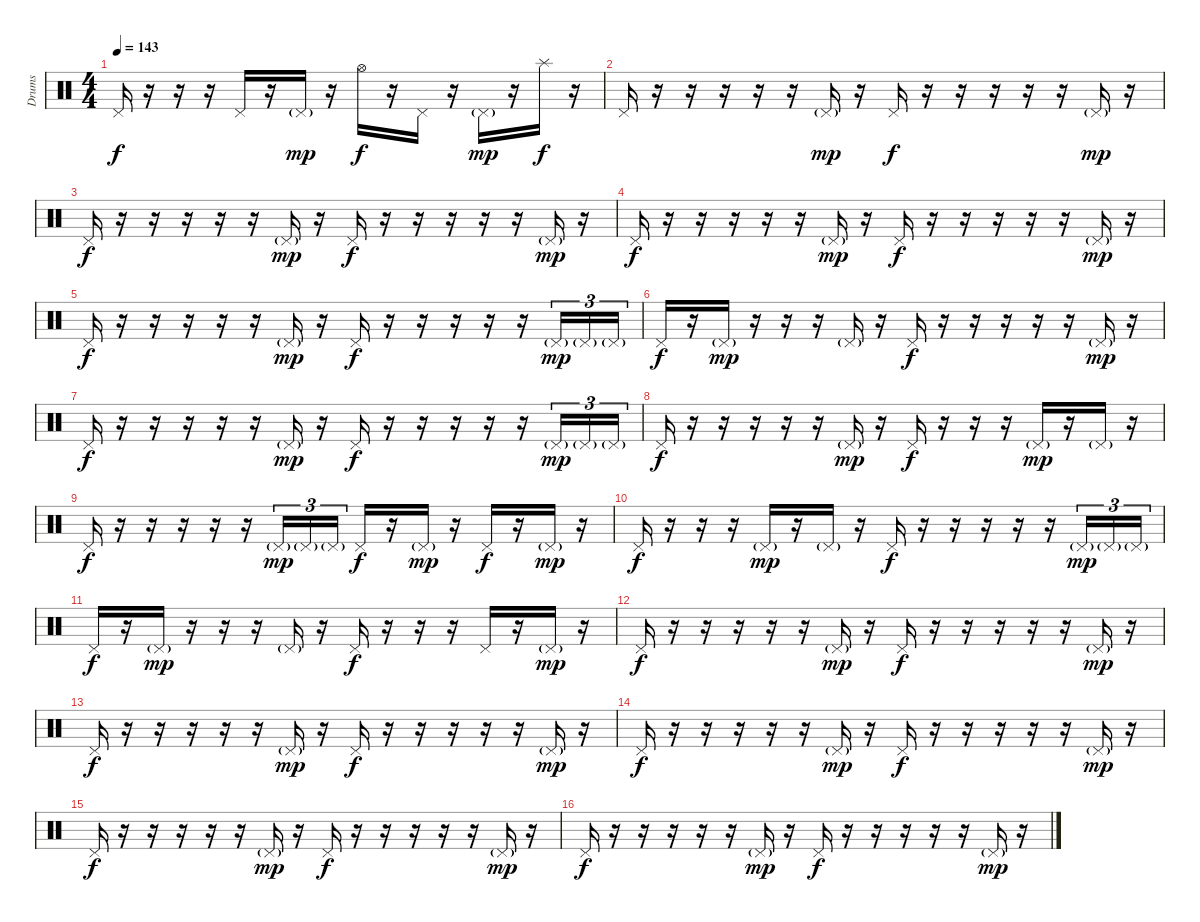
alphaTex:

\track ("Drums" "Drums") {instrument percussion}
\staff {score}
\articulation defaults
\ts (4 4)
\tempo 143
\clef neutral
\ks c "Pedal Hi-Hat (hit)".16{dy f}
r.16 r.16 r.16 "Pedal Hi-Hat (hit)".16 r.16 "Pedal Hi-Hat (hit)"{g}.16{dy mp} r.16 "Hi-Hat (open)".16{dy f} r.16 "Pedal Hi-Hat (hit)".16 r.16 "Pedal Hi-Hat (hit)"{g}.16{dy mp} r.16 "Splash (hit)".16{dy f} r.16 |
"Pedal Hi-Hat (hit)".16 r.16 r.16 r.16 r.16 r.16 "Pedal Hi-Hat (hit)"{g}.16{dy mp} r.16 "Pedal Hi-Hat (hit)".16{dy f} r.16 r.16 r.16 r.16 r.16 "Pedal Hi-Hat (hit)"{g}.16{dy mp} r.16 |
"Pedal Hi-Hat (hit)".16{dy f} r.16 r.16 r.16 r.16 r.16 "Pedal Hi-Hat (hit)"{g}.16{dy mp} r.16 "Pedal Hi-Hat (hit)".16{dy f} r.16 r.16 r.16 r.16 r.16 "Pedal Hi-Hat (hit)"{g}.16{dy mp} r.16 |
"Pedal Hi-Hat (hit)".16{dy f} r.16 r.16 r.16 r.16 r.16 "Pedal Hi-Hat (hit)"{g}.16{dy mp} r.16 "Pedal Hi-Hat (hit)".16{dy f} r.16 r.16 r.16 r.16 r.16 "Pedal Hi-Hat (hit)"{g}.16{dy mp} r.16 |
"Pedal Hi-Hat (hit)".16{dy f} r.16 r.16 r.16 r.16 r.16 "Pedal Hi-Hat (hit)"{g}.16{dy mp} r.16 "Pedal Hi-Hat (hit)".16{dy f} r.16 r.16 r.16 r.16 r.16 "Pedal Hi-Hat (hit)"{g}.16{tu (3 2) dy mp} "Pedal Hi-Hat (hit)"{g}.16{tu (3 2)} "Pedal Hi-Hat (hit)"{g}.16{tu (3 2)} |
"Pedal Hi-Hat (hit)".16{dy f} r.16 "Pedal Hi-Hat (hit)"{g}.16{dy mp} r.16 r.16 r.16 "Pedal Hi-Hat (hit)"{g}.16 r.16 "Pedal Hi-Hat (hit)".16{dy f} r.16 r.16 r.16 r.16 r.16 "Pedal Hi-Hat (hit)"{g}.16{dy mp} r.16 |
"Pedal Hi-Hat (hit)".16{dy f} r.16 r.16 r.16 r.16 r.16 "Pedal Hi-Hat (hit)"{g}.16{dy mp} r.16 "Pedal Hi-Hat (hit)".16{dy f} r.16 r.16 r.16 r.16 r.16 "Pedal Hi-Hat (hit)"{g}.16{tu (3 2) dy mp} "Pedal Hi-Hat (hit)"{g}.16{tu (3 2)} "Pedal Hi-Hat (hit)"{g}.16{tu (3 2)} |
"Pedal Hi-Hat (hit)".16{dy f} r.16 r.16 r.16 r.16 r.16 "Pedal Hi-Hat (hit)"{g}.16{dy mp} r.16 "Pedal Hi-Hat (hit)".16{dy f} r.16 r.16 r.16 "Pedal Hi-Hat (hit)"{g}.16{dy mp} r.16 "Pedal Hi-Hat (hit)"{g}.16 r.16 |
"Pedal Hi-Hat (hit)".16{dy f} r.16 r.16 r.16 r.16 r.16 "Pedal Hi-Hat (hit)"{g}.16{tu (3 2) dy mp} "Pedal Hi-Hat (hit)"{g}.16{tu (3 2)} "Pedal Hi-Hat (hit)"{g}.16{tu (3 2)} "Pedal Hi-Hat (hit)".16{dy f} r.16 "Pedal Hi-Hat (hit)"{g}.16{dy mp} r.16 "Pedal Hi-Hat (hit)".16{dy f} r.16 "Pedal Hi-Hat (hit)"{g}.16{dy mp} r.16 |
"Pedal Hi-Hat (hit)".16{dy f} r.16 r.16 r.16 "Pedal Hi-Hat (hit)"{g}.16{dy mp} r.16 "Pedal Hi-Hat (hit)"{g}.16 r.16 "Pedal Hi-Hat (hit)".16{dy f} r.16 r.16 r.16 r.16 r.16 "Pedal Hi-Hat (hit)"{g}.16{tu (3 2) dy mp} "Pedal Hi-Hat (hit)"{g}.16{tu (3 2)} "Pedal Hi-Hat (hit)"{g}.16{tu (3 2)} |
"Pedal Hi-Hat (hit)".16{dy f} r.16 "Pedal Hi-Hat (hit)"{g}.16{dy mp} r.16 r.16 r.16 "Pedal Hi-Hat (hit)"{g}.16 r.16 "Pedal Hi-Hat (hit)".16{dy f} r.16 r.16 r.16 "Pedal Hi-Hat (hit)".16 r.16 "Pedal Hi-Hat (hit)"{g}.16{dy mp} r.16 |
"Pedal Hi-Hat (hit)".16{dy f} r.16 r.16 r.16 r.16 r.16 "Pedal Hi-Hat (hit)"{g}.16{dy mp} r.16 "Pedal Hi-Hat (hit)".16{dy f} r.16 r.16 r.16 r.16 r.16 "Pedal Hi-Hat (hit)"{g}.16{dy mp} r.16 |
"Pedal Hi-Hat (hit)".16{dy f} r.16 r.16 r.16 r.16 r.16 "Pedal Hi-Hat (hit)"{g}.16{dy mp} r.16 "Pedal Hi-Hat (hit)".16{dy f} r.16 r.16 r.16 r.16 r.16 "Pedal Hi-Hat (hit)"{g}.16{dy mp} r.16 |
"Pedal Hi-Hat (hit)".16{dy f} r.16 r.16 r.16 r.16 r.16 "Pedal Hi-Hat (hit)"{g}.16{dy mp} r.16 "Pedal Hi-Hat (hit)".16{dy f} r.16 r.16 r.16 r.16 r.16 "Pedal Hi-Hat (hit)"{g}.16{dy mp} r.16 |
"Pedal Hi-Hat (hit)".16{dy f} r.16 r.16 r.16 r.16 r.16 "Pedal Hi-Hat (hit)"{g}.16{dy mp} r.16 "Pedal Hi-Hat (hit)".16{dy f} r.16 r.16 r.16 r.16 r.16 "Pedal Hi-Hat (hit)"{g}.16{dy mp} r.16 |
"Pedal Hi-Hat (hit)".16{dy f} r.16 r.16 r.16 r.16 r.16 "Pedal Hi-Hat (hit)"{g}.16{dy mp} r.16 "Pedal Hi-Hat (hit)".16{dy f} r.16 r.16 r.16 r.16 r.16 "Pedal Hi-Hat (hit)"{g}.16{dy mp} r.16
